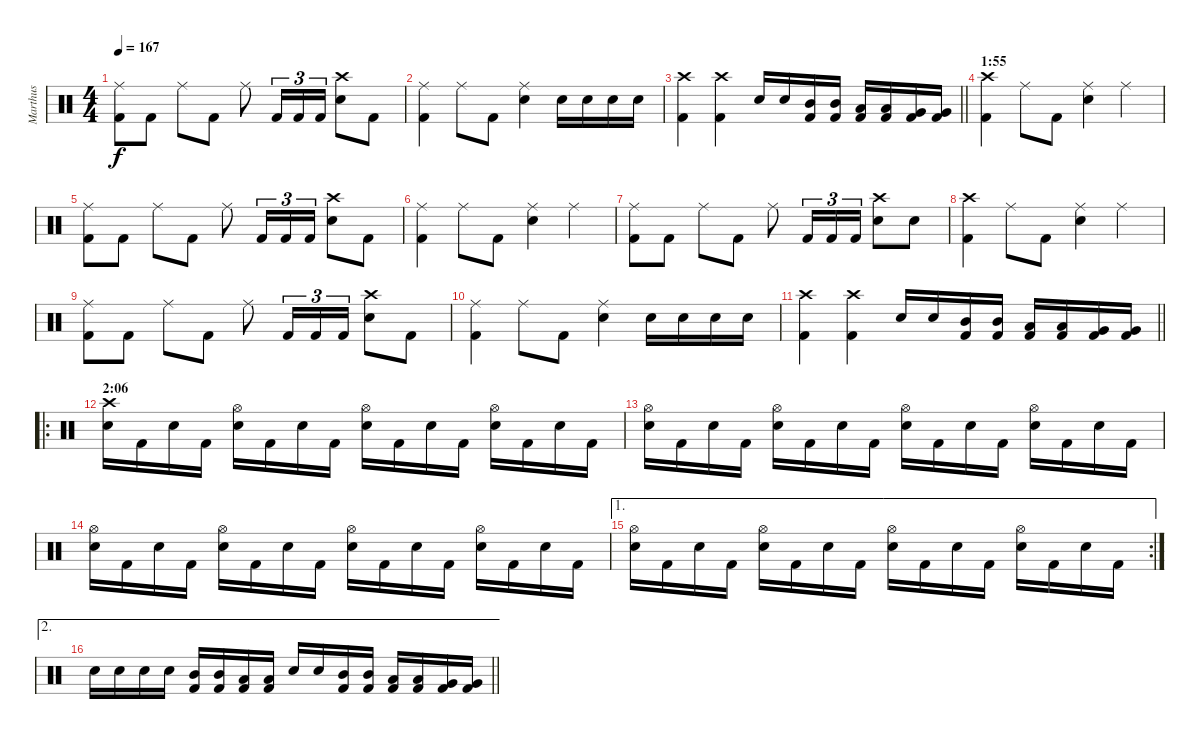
\track ("Marthus" "Marthus") {instrument percussion}
\staff {score}
\articulation defaults
\ts (4 4)
\tempo 167
\clef neutral
\ks c
("Kick (hit) 2" "Ride (middle)").8{dy f} "Kick (hit) 2".8 "Ride (middle)".8 "Kick (hit) 2".8 "Ride (middle)".8 "Kick (hit) 2".16{tu (3 2)} "Kick (hit) 2".16{tu (3 2)} "Kick (hit) 2".16{tu (3 2)} ("Snare (hit) 2" "Crash high (hit)").8 "Kick (hit) 2".8 |
("Kick (hit) 2" "Ride (middle)").4 "Ride (middle)".8 "Kick (hit) 2".8 ("Snare (hit) 2" "Ride (middle)").4 "Snare (hit) 2".16 "Snare (hit) 2".16 "Snare (hit) 2".16 "Snare (hit) 2".16 |
\barLineRight lightlight
("Kick (hit) 2" "Crash high (hit)").4 ("Kick (hit) 2" "Crash high (hit)").4 "Snare (hit) 2".16 "Snare (hit) 2".16 ("Kick (hit) 2" "Mid Tom (hit)").16 ("Kick (hit) 2" "Mid Tom (hit)").16 ("Kick (hit) 2" "Low Tom (hit)").16 ("Kick (hit) 2" "Low Tom (hit)").16 ("Kick (hit) 2" "Very Low Tom (hit)").16 ("Kick (hit) 2" "Very Low Tom (hit)").16 |
\section ("" "1:55")
("Kick (hit) 2" "Crash high (hit)").4 "Ride (middle)".8 "Kick (hit) 2".8 ("Snare (hit) 2" "Ride (middle)").4 "Ride (middle)".4 |
("Kick (hit) 2" "Ride (middle)").8 "Kick (hit) 2".8 "Ride (middle)".8 "Kick (hit) 2".8 "Ride (middle)".8 "Kick (hit) 2".16{tu (3 2)} "Kick (hit) 2".16{tu (3 2)} "Kick (hit) 2".16{tu (3 2)} ("Snare (hit) 2" "Crash high (hit)").8 "Kick (hit) 2".8 |
("Kick (hit) 2" "Ride (middle)").4 "Ride (middle)".8 "Kick (hit) 2".8 ("Snare (hit) 2" "Ride (middle)").4 "Ride (middle)".4 |
("Kick (hit) 2" "Ride (middle)").8 "Kick (hit) 2".8 "Ride (middle)".8 "Kick (hit) 2".8 "Ride (middle)".8 "Kick (hit) 2".16{tu (3 2)} "Kick (hit) 2".16{tu (3 2)} "Kick (hit) 2".16{tu (3 2)} ("Snare (hit) 2" "Crash high (hit)").8 "Snare (hit) 2".8 |
("Kick (hit) 2" "Crash high (hit)").4 "Ride (middle)".8 "Kick (hit) 2".8 ("Snare (hit) 2" "Ride (middle)").4 "Ride (middle)".4 |
("Kick (hit) 2" "Ride (middle)").8 "Kick (hit) 2".8 "Ride (middle)".8 "Kick (hit) 2".8 "Ride (middle)".8 "Kick (hit) 2".16{tu (3 2)} "Kick (hit) 2".16{tu (3 2)} "Kick (hit) 2".16{tu (3 2)} ("Snare (hit) 2" "Crash high (hit)").8 "Kick (hit) 2".8 |
("Kick (hit) 2" "Ride (middle)").4 "Ride (middle)".8 "Kick (hit) 2".8 ("Snare (hit) 2" "Ride (middle)").4 "Snare (hit) 2".16 "Snare (hit) 2".16 "Snare (hit) 2".16 "Snare (hit) 2".16 |
\barLineRight lightlight
("Kick (hit) 2" "Crash high (hit)").4 ("Kick (hit) 2" "Crash high (hit)").4 "Snare (hit) 2".16 "Snare (hit) 2".16 ("Kick (hit) 2" "Mid Tom (hit)").16 ("Kick (hit) 2" "Mid Tom (hit)").16 ("Kick (hit) 2" "Low Tom (hit)").16 ("Kick (hit) 2" "Low Tom (hit)").16 ("Kick (hit) 2" "Very Low Tom (hit)").16 ("Kick (hit) 2" "Very Low Tom (hit)").16 |
\ro
\section ("" "2:06")
("Snare (hit) 2" "Crash high (hit)").16 "Kick (hit) 2".16 "Snare (hit) 2".16 "Kick (hit) 2".16 ("Snare (hit) 2" "Hi-Hat (open)").16 "Kick (hit) 2".16 "Snare (hit) 2".16 "Kick (hit) 2".16 ("Snare (hit) 2" "Hi-Hat (open)").16 "Kick (hit) 2".16 "Snare (hit) 2".16 "Kick (hit) 2".16 ("Snare (hit) 2" "Hi-Hat (open)").16 "Kick (hit) 2".16 "Snare (hit) 2".16 "Kick (hit) 2".16 |
("Snare (hit) 2" "Hi-Hat (open)").16 "Kick (hit) 2".16 "Snare (hit) 2".16 "Kick (hit) 2".16 ("Snare (hit) 2" "Hi-Hat (open)").16 "Kick (hit) 2".16 "Snare (hit) 2".16 "Kick (hit) 2".16 ("Snare (hit) 2" "Hi-Hat (open)").16 "Kick (hit) 2".16 "Snare (hit) 2".16 "Kick (hit) 2".16 ("Snare (hit) 2" "Hi-Hat (open)").16 "Kick (hit) 2".16 "Snare (hit) 2".16 "Kick (hit) 2".16 |
("Snare (hit) 2" "Hi-Hat (open)").16 "Kick (hit) 2".16 "Snare (hit) 2".16 "Kick (hit) 2".16 ("Snare (hit) 2" "Hi-Hat (open)").16 "Kick (hit) 2".16 "Snare (hit) 2".16 "Kick (hit) 2".16 ("Snare (hit) 2" "Hi-Hat (open)").16 "Kick (hit) 2".16 "Snare (hit) 2".16 "Kick (hit) 2".16 ("Snare (hit) 2" "Hi-Hat (open)").16 "Kick (hit) 2".16 "Snare (hit) 2".16 "Kick (hit) 2".16 |
\ae 1
\rc 2
("Snare (hit) 2" "Hi-Hat (open)").16 "Kick (hit) 2".16 "Snare (hit) 2".16 "Kick (hit) 2".16 ("Snare (hit) 2" "Hi-Hat (open)").16 "Kick (hit) 2".16 "Snare (hit) 2".16 "Kick (hit) 2".16 ("Snare (hit) 2" "Hi-Hat (open)").16 "Kick (hit) 2".16 "Snare (hit) 2".16 "Kick (hit) 2".16 ("Snare (hit) 2" "Hi-Hat (open)").16 "Kick (hit) 2".16 "Snare (hit) 2".16 "Kick (hit) 2".16 |
\ae 2
\barLineRight lightlight "Snare (hit) 2".16 "Snare (hit) 2".16 "Snare (hit) 2".16 "Snare (hit) 2".16
("Kick (hit) 2" "Mid Tom (hit)").16 ("Kick (hit) 2" "Mid Tom (hit)").16 ("Kick (hit) 2" "Low Tom (hit)").16 ("Kick (hit) 2" "Low Tom (hit)").16 "Snare (hit) 2".16 "Snare (hit) 2".16 ("Kick (hit) 2" "Mid Tom (hit)").16 ("Kick (hit) 2" "Mid Tom (hit)").16 ("Kick (hit) 2" "Low Tom (hit)").16 ("Kick (hit) 2" "Low Tom (hit)").16 ("Kick (hit) 2" "Very Low Tom (hit)").16 ("Kick (hit) 2" "Very Low Tom (hit)").16
